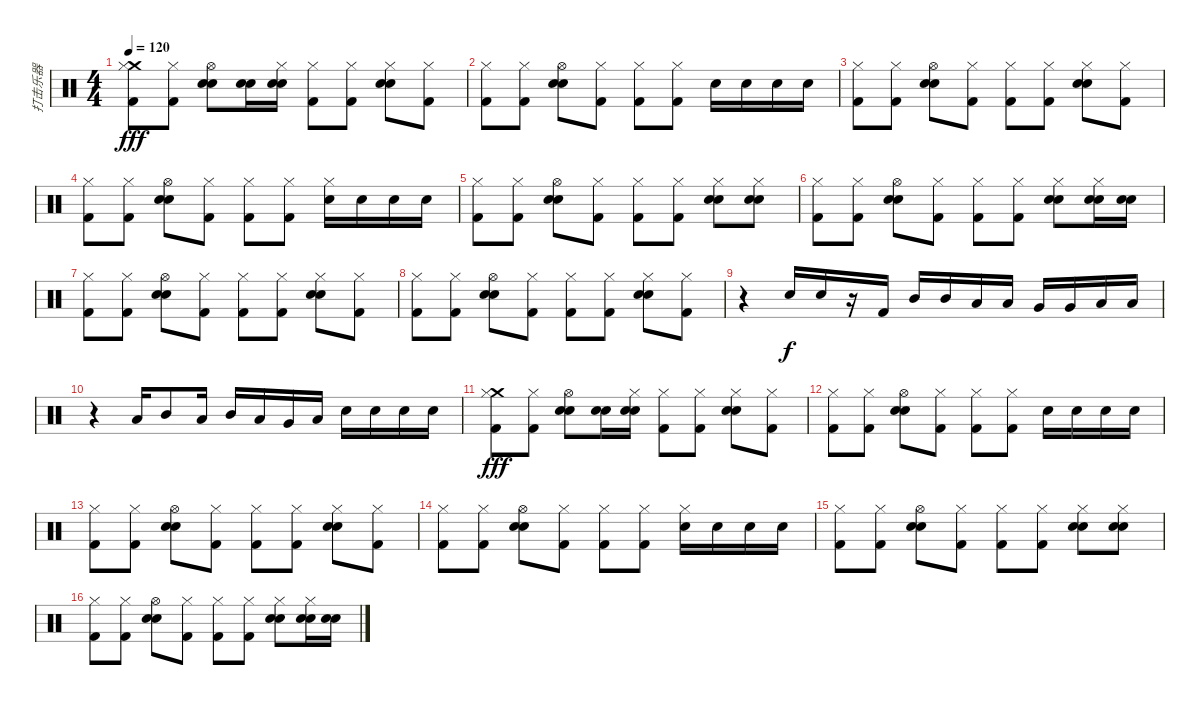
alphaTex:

\track ("打击乐器" "打击乐器") {instrument percussion}
\staff {score}
\articulation defaults
\ts (4 4)
\tempo 120
\clef neutral
\ks c
("Crash medium (hit)" "Kick (hit) 2" "Hi-Hat (closed)").8{dy fff} ("Kick (hit) 2" "Hi-Hat (closed)").8 ("Snare (hit) 2" "Electric Snare (hit)" "Hi-Hat (open)").8 ("Snare (hit) 2" "Electric Snare (hit)").16 ("Snare (hit) 2" "Electric Snare (hit)" "Hi-Hat (closed)").16 ("Kick (hit) 2" "Hi-Hat (closed)").8 ("Kick (hit) 2" "Hi-Hat (closed)").8 ("Snare (hit) 2" "Electric Snare (hit)" "Hi-Hat (closed)").8 ("Kick (hit) 2" "Hi-Hat (closed)").8 |
("Kick (hit) 2" "Hi-Hat (closed)").8 ("Kick (hit) 2" "Hi-Hat (closed)").8 ("Snare (hit) 2" "Electric Snare (hit)" "Hi-Hat (open)").8 ("Kick (hit) 2" "Hi-Hat (closed)").8 ("Kick (hit) 2" "Hi-Hat (closed)").8 ("Kick (hit) 2" "Hi-Hat (closed)").8 "Snare (hit) 2".16 "Snare (hit) 2".16 "Snare (hit) 2".16 "Snare (hit) 2".16 |
("Kick (hit) 2" "Hi-Hat (closed)").8 ("Kick (hit) 2" "Hi-Hat (closed)").8 ("Snare (hit) 2" "Electric Snare (hit)" "Hi-Hat (open)").8 ("Kick (hit) 2" "Hi-Hat (closed)").8 ("Kick (hit) 2" "Hi-Hat (closed)").8 ("Kick (hit) 2" "Hi-Hat (closed)").8 ("Snare (hit) 2" "Electric Snare (hit)" "Hi-Hat (closed)").8 ("Kick (hit) 2" "Hi-Hat (closed)").8 |
("Kick (hit) 2" "Hi-Hat (closed)").8 ("Kick (hit) 2" "Hi-Hat (closed)").8 ("Snare (hit) 2" "Electric Snare (hit)" "Hi-Hat (open)").8 ("Kick (hit) 2" "Hi-Hat (closed)").8 ("Kick (hit) 2" "Hi-Hat (closed)").8 ("Kick (hit) 2" "Hi-Hat (closed)").8 ("Snare (hit) 2" "Hi-Hat (closed)").16 "Snare (hit) 2".16 "Snare (hit) 2".16 "Snare (hit) 2".16 |
("Kick (hit) 2" "Hi-Hat (closed)").8 ("Kick (hit) 2" "Hi-Hat (closed)").8 ("Snare (hit) 2" "Electric Snare (hit)" "Hi-Hat (open)").8 ("Kick (hit) 2" "Hi-Hat (closed)").8 ("Kick (hit) 2" "Hi-Hat (closed)").8 ("Kick (hit) 2" "Hi-Hat (closed)").8 ("Snare (hit) 2" "Electric Snare (hit)" "Hi-Hat (closed)").8 ("Snare (hit) 2" "Electric Snare (hit)" "Hi-Hat (closed)").8 |
("Kick (hit) 2" "Hi-Hat (closed)").8 ("Kick (hit) 2" "Hi-Hat (closed)").8 ("Snare (hit) 2" "Electric Snare (hit)" "Hi-Hat (open)").8 ("Kick (hit) 2" "Hi-Hat (closed)").8 ("Kick (hit) 2" "Hi-Hat (closed)").8 ("Kick (hit) 2" "Hi-Hat (closed)").8 ("Snare (hit) 2" "Electric Snare (hit)" "Hi-Hat (closed)").8 ("Snare (hit) 2" "Electric Snare (hit)" "Hi-Hat (closed)").16 ("Snare (hit) 2" "Electric Snare (hit)").16 |
("Kick (hit) 2" "Hi-Hat (closed)").8 ("Kick (hit) 2" "Hi-Hat (closed)").8 ("Snare (hit) 2" "Electric Snare (hit)" "Hi-Hat (open)").8 ("Kick (hit) 2" "Hi-Hat (closed)").8 ("Kick (hit) 2" "Hi-Hat (closed)").8 ("Kick (hit) 2" "Hi-Hat (closed)").8 ("Snare (hit) 2" "Electric Snare (hit)" "Hi-Hat (closed)").8 ("Kick (hit) 2" "Hi-Hat (closed)").8 |
("Kick (hit) 2" "Hi-Hat (closed)").8 ("Kick (hit) 2" "Hi-Hat (closed)").8 ("Snare (hit) 2" "Electric Snare (hit)" "Hi-Hat (open)").8 ("Kick (hit) 2" "Hi-Hat (closed)").8 ("Kick (hit) 2" "Hi-Hat (closed)").8 ("Kick (hit) 2" "Hi-Hat (closed)").8 ("Snare (hit) 2" "Electric Snare (hit)" "Hi-Hat (closed)").8 ("Kick (hit) 2" "Hi-Hat (closed)").8 |
r.4 "Electric Snare (hit)".16{dy f} "Electric Snare (hit)".16 r.16 "Kick (hit) 2".16 "Mid Tom (hit)".16 "Mid Tom (hit)".16 "Low Tom (hit)".16 "Low Tom (hit)".16 "Very Low Tom (hit)".16 "Very Low Tom (hit)".16 "Low Floor Tom (hit)".16 "Low Floor Tom (hit)".16 |
r.4 "Low Tom (hit)".16 "Mid Tom (hit)".8 "Low Tom (hit)".16 "Mid Tom (hit)".16 "Low Tom (hit)".16 "Very Low Tom (hit)".16 "Low Floor Tom (hit)".16 "Electric Snare (hit)".16 "Electric Snare (hit)".16 "Electric Snare (hit)".16 "Electric Snare (hit)".16 |
("Crash medium (hit)" "Kick (hit) 2" "Hi-Hat (closed)").8{dy fff} ("Kick (hit) 2" "Hi-Hat (closed)").8 ("Snare (hit) 2" "Electric Snare (hit)" "Hi-Hat (open)").8 ("Snare (hit) 2" "Electric Snare (hit)").16 ("Snare (hit) 2" "Electric Snare (hit)" "Hi-Hat (closed)").16 ("Kick (hit) 2" "Hi-Hat (closed)").8 ("Kick (hit) 2" "Hi-Hat (closed)").8 ("Snare (hit) 2" "Electric Snare (hit)" "Hi-Hat (closed)").8 ("Kick (hit) 2" "Hi-Hat (closed)").8 |
("Kick (hit) 2" "Hi-Hat (closed)").8 ("Kick (hit) 2" "Hi-Hat (closed)").8 ("Snare (hit) 2" "Electric Snare (hit)" "Hi-Hat (open)").8 ("Kick (hit) 2" "Hi-Hat (closed)").8 ("Kick (hit) 2" "Hi-Hat (closed)").8 ("Kick (hit) 2" "Hi-Hat (closed)").8 "Snare (hit) 2".16 "Snare (hit) 2".16 "Snare (hit) 2".16 "Snare (hit) 2".16 |
("Kick (hit) 2" "Hi-Hat (closed)").8 ("Kick (hit) 2" "Hi-Hat (closed)").8 ("Snare (hit) 2" "Electric Snare (hit)" "Hi-Hat (open)").8 ("Kick (hit) 2" "Hi-Hat (closed)").8 ("Kick (hit) 2" "Hi-Hat (closed)").8 ("Kick (hit) 2" "Hi-Hat (closed)").8 ("Snare (hit) 2" "Electric Snare (hit)" "Hi-Hat (closed)").8 ("Kick (hit) 2" "Hi-Hat (closed)").8 |
("Kick (hit) 2" "Hi-Hat (closed)").8 ("Kick (hit) 2" "Hi-Hat (closed)").8 ("Snare (hit) 2" "Electric Snare (hit)" "Hi-Hat (open)").8 ("Kick (hit) 2" "Hi-Hat (closed)").8 ("Kick (hit) 2" "Hi-Hat (closed)").8 ("Kick (hit) 2" "Hi-Hat (closed)").8 ("Snare (hit) 2" "Hi-Hat (closed)").16 "Snare (hit) 2".16 "Snare (hit) 2".16 "Snare (hit) 2".16 |
("Kick (hit) 2" "Hi-Hat (closed)").8 ("Kick (hit) 2" "Hi-Hat (closed)").8 ("Snare (hit) 2" "Electric Snare (hit)" "Hi-Hat (open)").8 ("Kick (hit) 2" "Hi-Hat (closed)").8 ("Kick (hit) 2" "Hi-Hat (closed)").8 ("Kick (hit) 2" "Hi-Hat (closed)").8 ("Snare (hit) 2" "Electric Snare (hit)" "Hi-Hat (closed)").8 ("Snare (hit) 2" "Electric Snare (hit)" "Hi-Hat (closed)").8 |
("Kick (hit) 2" "Hi-Hat (closed)").8 ("Kick (hit) 2" "Hi-Hat (closed)").8 ("Snare (hit) 2" "Electric Snare (hit)" "Hi-Hat (open)").8 ("Kick (hit) 2" "Hi-Hat (closed)").8 ("Kick (hit) 2" "Hi-Hat (closed)").8 ("Kick (hit) 2" "Hi-Hat (closed)").8 ("Snare (hit) 2" "Electric Snare (hit)" "Hi-Hat (closed)").8 ("Snare (hit) 2" "Electric Snare (hit)" "Hi-Hat (closed)").16 ("Snare (hit) 2" "Electric Snare (hit)").16
